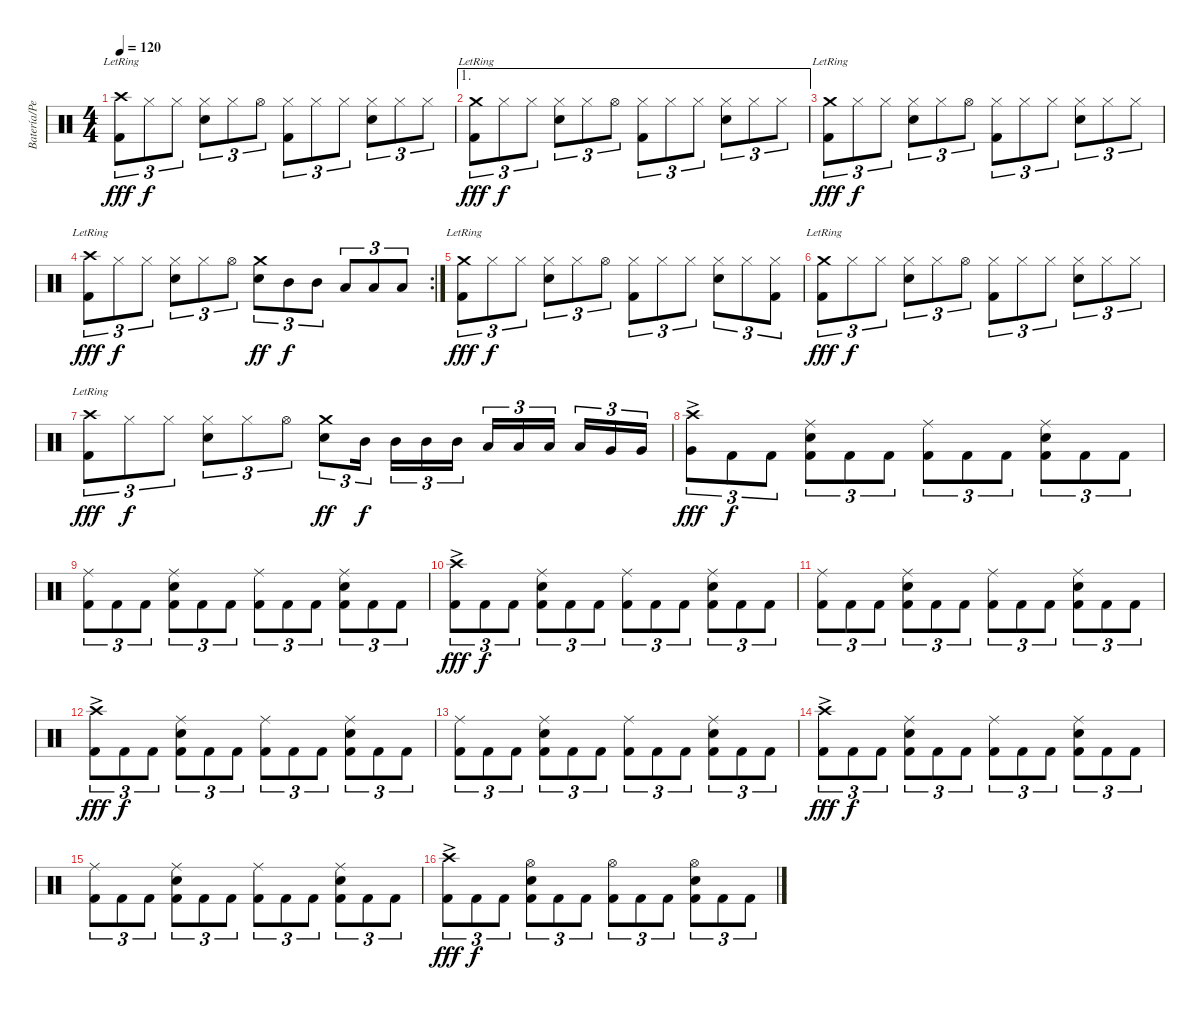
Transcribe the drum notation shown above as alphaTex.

\track ("Batería/Perc." "Batería/Pe") {instrument percussion}
\staff {score}
\articulation defaults
\ts (4 4)
\tempo 120
\clef neutral
\ks c
("Crash high (hit)"{lr} "Kick (hit) 2").8{tu (3 2) dy fff volume 14} "Hi-Hat (closed)".8{tu (3 2) dy f} "Hi-Hat (closed)".8{tu (3 2)} ("Hi-Hat (closed)" "Snare (hit) 2").8{tu (3 2)} "Hi-Hat (closed)".8{tu (3 2)} "Hi-Hat (open)".8{tu (3 2)} ("Hi-Hat (closed)" "Kick (hit) 2").8{tu (3 2)} "Hi-Hat (closed)".8{tu (3 2)} "Hi-Hat (closed)".8{tu (3 2)} ("Hi-Hat (closed)" "Snare (hit) 2").8{tu (3 2)} "Hi-Hat (closed)".8{tu (3 2)} "Hi-Hat (closed)".8{tu (3 2)} |
\ae 1
("Crash medium (hit)"{lr} "Kick (hit) 2").8{tu (3 2) dy fff volume 14} "Hi-Hat (closed)".8{tu (3 2) dy f} "Hi-Hat (closed)".8{tu (3 2)} ("Hi-Hat (closed)" "Snare (hit) 2").8{tu (3 2)} "Hi-Hat (closed)".8{tu (3 2)} "Hi-Hat (open)".8{tu (3 2)} ("Hi-Hat (closed)" "Kick (hit) 2").8{tu (3 2)} "Hi-Hat (closed)".8{tu (3 2)} "Hi-Hat (closed)".8{tu (3 2)} ("Hi-Hat (closed)" "Snare (hit) 2").8{tu (3 2)} "Hi-Hat (closed)".8{tu (3 2)} "Hi-Hat (closed)".8{tu (3 2)} |
("Crash medium (hit)"{lr} "Kick (hit) 2").8{tu (3 2) dy fff volume 14} "Hi-Hat (closed)".8{tu (3 2) dy f} "Hi-Hat (closed)".8{tu (3 2)} ("Hi-Hat (closed)" "Snare (hit) 2").8{tu (3 2)} "Hi-Hat (closed)".8{tu (3 2)} "Hi-Hat (open)".8{tu (3 2)} ("Hi-Hat (closed)" "Kick (hit) 2").8{tu (3 2)} "Hi-Hat (closed)".8{tu (3 2)} "Hi-Hat (closed)".8{tu (3 2)} ("Hi-Hat (closed)" "Snare (hit) 2").8{tu (3 2)} "Hi-Hat (closed)".8{tu (3 2)} "Hi-Hat (closed)".8{tu (3 2)} |
\rc 2
("Crash high (hit)"{lr} "Kick (hit) 2").8{tu (3 2) dy fff volume 14} "Hi-Hat (closed)".8{tu (3 2) dy f} "Hi-Hat (closed)".8{tu (3 2)} ("Hi-Hat (closed)" "Snare (hit) 2").8{tu (3 2)} "Hi-Hat (closed)".8{tu (3 2)} "Hi-Hat (open)".8{tu (3 2)} ("Crash medium (hit)" "Snare (hit) 2").8{tu (3 2) dy ff} "Mid Tom (hit)".8{tu (3 2) dy f} "Mid Tom (hit)".8{tu (3 2)} "Low Tom (hit)".8{tu (3 2)} "Low Tom (hit)".8{tu (3 2)} "Low Tom (hit)".8{tu (3 2)} |
("Crash medium (hit)"{lr} "Kick (hit) 2").8{tu (3 2) dy fff volume 14} "Hi-Hat (closed)".8{tu (3 2) dy f} "Hi-Hat (closed)".8{tu (3 2)} ("Hi-Hat (closed)" "Snare (hit) 2").8{tu (3 2)} "Hi-Hat (closed)".8{tu (3 2)} "Hi-Hat (open)".8{tu (3 2)} ("Hi-Hat (closed)" "Kick (hit) 2").8{tu (3 2)} "Hi-Hat (closed)".8{tu (3 2)} "Hi-Hat (closed)".8{tu (3 2)} ("Hi-Hat (closed)" "Snare (hit) 2").8{tu (3 2)} "Hi-Hat (closed)".8{tu (3 2)} ("Hi-Hat (closed)" "Kick (hit) 2").8{tu (3 2)} |
("Crash medium (hit)"{lr} "Kick (hit) 2").8{tu (3 2) dy fff volume 14} "Hi-Hat (closed)".8{tu (3 2) dy f} "Hi-Hat (closed)".8{tu (3 2)} ("Hi-Hat (closed)" "Snare (hit) 2").8{tu (3 2)} "Hi-Hat (closed)".8{tu (3 2)} "Hi-Hat (open)".8{tu (3 2)} ("Hi-Hat (closed)" "Kick (hit) 2").8{tu (3 2)} "Hi-Hat (closed)".8{tu (3 2)} "Hi-Hat (closed)".8{tu (3 2)} ("Hi-Hat (closed)" "Snare (hit) 2").8{tu (3 2)} "Hi-Hat (closed)".8{tu (3 2)} "Hi-Hat (closed)".8{tu (3 2)} |
("Crash high (hit)"{lr} "Kick (hit) 2").8{tu (3 2) dy fff volume 14} "Hi-Hat (closed)".8{tu (3 2) dy f} "Hi-Hat (closed)".8{tu (3 2)} ("Hi-Hat (closed)" "Snare (hit) 2").8{tu (3 2)} "Hi-Hat (closed)".8{tu (3 2)} "Hi-Hat (open)".8{tu (3 2)} ("Crash medium (hit)" "Snare (hit) 2").8{tu (3 2) dy ff} "Mid Tom (hit)".16{tu (3 2) dy f} "Mid Tom (hit)".16{tu (3 2)} "Mid Tom (hit)".16{tu (3 2)} "Mid Tom (hit)".16{tu (3 2)} "Low Tom (hit)".16{tu (3 2)} "Low Tom (hit)".16{tu (3 2)} "Low Tom (hit)".16{tu (3 2)} "Low Tom (hit)".16{tu (3 2)} "Very Low Tom (hit)".16{tu (3 2)} "Very Low Tom (hit)".16{tu (3 2)} |
("Crash high (hit)"{ac} "Very Low Tom (hit)").8{tu (3 2) dy fff} "Kick (hit) 2".8{tu (3 2) dy f} "Kick (hit) 2".8{tu (3 2)} ("Ride (middle)" "Kick (hit) 2" "Snare (hit) 2").8{tu (3 2)} "Kick (hit) 2".8{tu (3 2)} "Kick (hit) 2".8{tu (3 2)} ("Ride (middle)" "Kick (hit) 2").8{tu (3 2)} "Kick (hit) 2".8{tu (3 2)} "Kick (hit) 2".8{tu (3 2)} ("Ride (middle)" "Kick (hit) 2" "Snare (hit) 2").8{tu (3 2)} "Kick (hit) 2".8{tu (3 2)} "Kick (hit) 2".8{tu (3 2)} |
("Ride (middle)" "Kick (hit) 2").8{tu (3 2)} "Kick (hit) 2".8{tu (3 2)} "Kick (hit) 2".8{tu (3 2)} ("Ride (middle)" "Kick (hit) 2" "Snare (hit) 2").8{tu (3 2)} "Kick (hit) 2".8{tu (3 2)} "Kick (hit) 2".8{tu (3 2)} ("Ride (middle)" "Kick (hit) 2").8{tu (3 2)} "Kick (hit) 2".8{tu (3 2)} "Kick (hit) 2".8{tu (3 2)} ("Ride (middle)" "Kick (hit) 2" "Snare (hit) 2").8{tu (3 2)} "Kick (hit) 2".8{tu (3 2)} "Kick (hit) 2".8{tu (3 2)} |
("Crash high (hit)"{ac} "Kick (hit) 2").8{tu (3 2) dy fff} "Kick (hit) 2".8{tu (3 2) dy f} "Kick (hit) 2".8{tu (3 2)} ("Ride (middle)" "Kick (hit) 2" "Snare (hit) 2").8{tu (3 2)} "Kick (hit) 2".8{tu (3 2)} "Kick (hit) 2".8{tu (3 2)} ("Ride (middle)" "Kick (hit) 2").8{tu (3 2)} "Kick (hit) 2".8{tu (3 2)} "Kick (hit) 2".8{tu (3 2)} ("Ride (middle)" "Kick (hit) 2" "Snare (hit) 2").8{tu (3 2)} "Kick (hit) 2".8{tu (3 2)} "Kick (hit) 2".8{tu (3 2)} |
("Ride (middle)" "Kick (hit) 2").8{tu (3 2)} "Kick (hit) 2".8{tu (3 2)} "Kick (hit) 2".8{tu (3 2)} ("Ride (middle)" "Kick (hit) 2" "Snare (hit) 2").8{tu (3 2)} "Kick (hit) 2".8{tu (3 2)} "Kick (hit) 2".8{tu (3 2)} ("Ride (middle)" "Kick (hit) 2").8{tu (3 2)} "Kick (hit) 2".8{tu (3 2)} "Kick (hit) 2".8{tu (3 2)} ("Ride (middle)" "Kick (hit) 2" "Snare (hit) 2").8{tu (3 2)} "Kick (hit) 2".8{tu (3 2)} "Kick (hit) 2".8{tu (3 2)} |
("Crash high (hit)"{ac} "Kick (hit) 2").8{tu (3 2) dy fff} "Kick (hit) 2".8{tu (3 2) dy f} "Kick (hit) 2".8{tu (3 2)} ("Ride (middle)" "Kick (hit) 2" "Snare (hit) 2").8{tu (3 2)} "Kick (hit) 2".8{tu (3 2)} "Kick (hit) 2".8{tu (3 2)} ("Ride (middle)" "Kick (hit) 2").8{tu (3 2)} "Kick (hit) 2".8{tu (3 2)} "Kick (hit) 2".8{tu (3 2)} ("Ride (middle)" "Kick (hit) 2" "Snare (hit) 2").8{tu (3 2)} "Kick (hit) 2".8{tu (3 2)} "Kick (hit) 2".8{tu (3 2)} |
("Ride (middle)" "Kick (hit) 2").8{tu (3 2)} "Kick (hit) 2".8{tu (3 2)} "Kick (hit) 2".8{tu (3 2)} ("Ride (middle)" "Kick (hit) 2" "Snare (hit) 2").8{tu (3 2)} "Kick (hit) 2".8{tu (3 2)} "Kick (hit) 2".8{tu (3 2)} ("Ride (middle)" "Kick (hit) 2").8{tu (3 2)} "Kick (hit) 2".8{tu (3 2)} "Kick (hit) 2".8{tu (3 2)} ("Ride (middle)" "Kick (hit) 2" "Snare (hit) 2").8{tu (3 2)} "Kick (hit) 2".8{tu (3 2)} "Kick (hit) 2".8{tu (3 2)} |
("Crash high (hit)"{ac} "Kick (hit) 2").8{tu (3 2) dy fff} "Kick (hit) 2".8{tu (3 2) dy f} "Kick (hit) 2".8{tu (3 2)} ("Ride (middle)" "Kick (hit) 2" "Snare (hit) 2").8{tu (3 2)} "Kick (hit) 2".8{tu (3 2)} "Kick (hit) 2".8{tu (3 2)} ("Ride (middle)" "Kick (hit) 2").8{tu (3 2)} "Kick (hit) 2".8{tu (3 2)} "Kick (hit) 2".8{tu (3 2)} ("Ride (middle)" "Kick (hit) 2" "Snare (hit) 2").8{tu (3 2)} "Kick (hit) 2".8{tu (3 2)} "Kick (hit) 2".8{tu (3 2)} |
("Ride (middle)" "Kick (hit) 2").8{tu (3 2)} "Kick (hit) 2".8{tu (3 2)} "Kick (hit) 2".8{tu (3 2)} ("Ride (middle)" "Kick (hit) 2" "Snare (hit) 2").8{tu (3 2)} "Kick (hit) 2".8{tu (3 2)} "Kick (hit) 2".8{tu (3 2)} ("Ride (middle)" "Kick (hit) 2").8{tu (3 2)} "Kick (hit) 2".8{tu (3 2)} "Kick (hit) 2".8{tu (3 2)} ("Ride (middle)" "Kick (hit) 2" "Snare (hit) 2").8{tu (3 2)} "Kick (hit) 2".8{tu (3 2)} "Kick (hit) 2".8{tu (3 2)} |
("Crash high (hit)"{ac} "Kick (hit) 2").8{tu (3 2) dy fff} "Kick (hit) 2".8{tu (3 2) dy f} "Kick (hit) 2".8{tu (3 2)} ("Hi-Hat (open)" "Kick (hit) 2" "Snare (hit) 2").8{tu (3 2)} "Kick (hit) 2".8{tu (3 2)} "Kick (hit) 2".8{tu (3 2)} ("Hi-Hat (open)" "Kick (hit) 2").8{tu (3 2)} "Kick (hit) 2".8{tu (3 2)} "Kick (hit) 2".8{tu (3 2)} ("Hi-Hat (open)" "Kick (hit) 2" "Snare (hit) 2").8{tu (3 2)} "Kick (hit) 2".8{tu (3 2)} "Kick (hit) 2".8{tu (3 2)}
